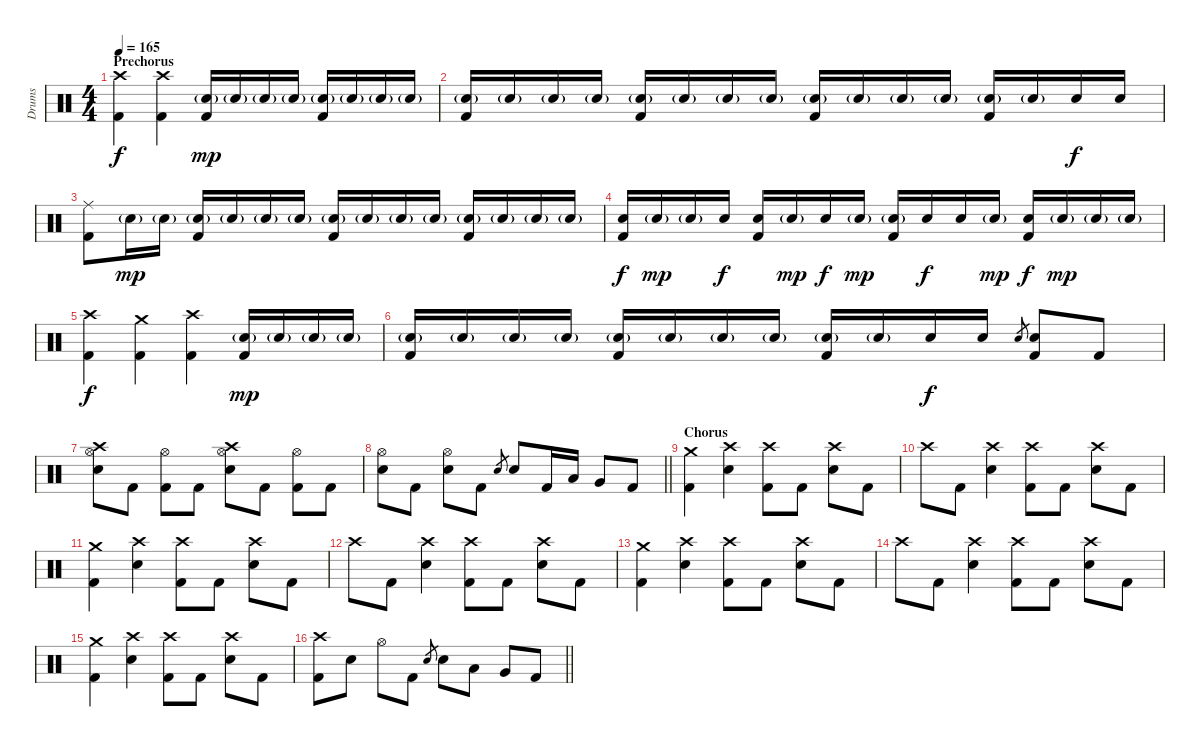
\track ("Drums" "Drums") {instrument percussion}
\staff {score}
\articulation defaults
\ts (4 4)
\section ("" "Prechorus")
\tempo 165
\clef neutral
\ks c
("Crash high (hit)" "Kick (hit) 2").4{dy f} ("Crash high (hit)" "Kick (hit) 2").4 ("Electric Snare (hit)"{g} "Kick (hit) 2").16{dy mp} "Electric Snare (hit)"{g}.16 "Electric Snare (hit)"{g}.16 "Electric Snare (hit)"{g}.16 ("Electric Snare (hit)"{g} "Kick (hit) 2").16 "Electric Snare (hit)"{g}.16 "Electric Snare (hit)"{g}.16 "Electric Snare (hit)"{g}.16 |
("Electric Snare (hit)"{g} "Kick (hit) 2").16 "Electric Snare (hit)"{g}.16 "Electric Snare (hit)"{g}.16 "Electric Snare (hit)"{g}.16 ("Electric Snare (hit)"{g} "Kick (hit) 2").16 "Electric Snare (hit)"{g}.16 "Electric Snare (hit)"{g}.16 "Electric Snare (hit)"{g}.16 ("Electric Snare (hit)"{g} "Kick (hit) 2").16 "Electric Snare (hit)"{g}.16 "Electric Snare (hit)"{g}.16 "Electric Snare (hit)"{g}.16 ("Electric Snare (hit)"{g} "Kick (hit) 2").16 "Electric Snare (hit)"{g}.16 "Electric Snare (hit)".16{dy f} "Electric Snare (hit)".16 |
("Ride (middle)" "Kick (hit) 2").8 "Electric Snare (hit)"{g}.16{dy mp} "Electric Snare (hit)"{g}.16 ("Electric Snare (hit)"{g} "Kick (hit) 2").16 "Electric Snare (hit)"{g}.16 "Electric Snare (hit)"{g}.16 "Electric Snare (hit)"{g}.16 ("Electric Snare (hit)"{g} "Kick (hit) 2").16 "Electric Snare (hit)"{g}.16 "Electric Snare (hit)"{g}.16 "Electric Snare (hit)"{g}.16 ("Electric Snare (hit)"{g} "Kick (hit) 2").16 "Electric Snare (hit)"{g}.16 "Electric Snare (hit)"{g}.16 "Electric Snare (hit)"{g}.16 |
("Electric Snare (hit)" "Kick (hit) 2").16{dy f} "Electric Snare (hit)"{g}.16{dy mp} "Electric Snare (hit)"{g}.16 "Electric Snare (hit)".16{dy f} ("Electric Snare (hit)" "Kick (hit) 2").16 "Electric Snare (hit)"{g}.16{dy mp} "Electric Snare (hit)".16{dy f} "Electric Snare (hit)"{g}.16{dy mp} ("Electric Snare (hit)"{g} "Kick (hit) 2").16 "Electric Snare (hit)".16{dy f} "Electric Snare (hit)".16 "Electric Snare (hit)"{g}.16{dy mp} ("Electric Snare (hit)" "Kick (hit) 2").16{dy f} "Electric Snare (hit)"{g}.16{dy mp} "Electric Snare (hit)"{g}.16 "Electric Snare (hit)"{g}.16 |
("Crash high (hit)" "Kick (hit) 2").4{dy f} ("Crash medium (hit)" "Kick (hit) 2").4 ("Crash high (hit)" "Kick (hit) 2").4 ("Electric Snare (hit)"{g} "Kick (hit) 2").16{dy mp} "Electric Snare (hit)"{g}.16 "Electric Snare (hit)"{g}.16 "Electric Snare (hit)"{g}.16 |
("Electric Snare (hit)"{g} "Kick (hit) 2").16 "Electric Snare (hit)"{g}.16 "Electric Snare (hit)"{g}.16 "Electric Snare (hit)"{g}.16 ("Electric Snare (hit)"{g} "Kick (hit) 2").16 "Electric Snare (hit)"{g}.16 "Electric Snare (hit)"{g}.16 "Electric Snare (hit)"{g}.16 ("Electric Snare (hit)"{g} "Kick (hit) 2").16 "Electric Snare (hit)"{g}.16 "Electric Snare (hit)".16{dy f} "Electric Snare (hit)".16 "Electric Snare (hit)".8{gr} ("Electric Snare (hit)" "Kick (hit) 2").8 "Kick (hit) 2".8 |
("Crash high (hit)" "Hi-Hat (open)" "Electric Snare (hit)").8 "Kick (hit) 2".8 ("Hi-Hat (open)" "Kick (hit) 2").8 "Kick (hit) 2".8 ("Crash high (hit)" "Hi-Hat (open)" "Electric Snare (hit)").8 "Kick (hit) 2".8 ("Hi-Hat (open)" "Kick (hit) 2").8 "Kick (hit) 2".8 |
\barLineRight lightlight
("Hi-Hat (open)" "Electric Snare (hit)").8 "Kick (hit) 2".8 ("Hi-Hat (open)" "Electric Snare (hit)").8 "Kick (hit) 2".8 "Electric Snare (hit)".8{gr} "Electric Snare (hit)".8 "Kick (hit) 2".16 "Low Tom (hit)".16 "Very Low Tom (hit)".8 "Kick (hit) 2".8 |
\section ("" "Chorus")
("Crash medium (hit)" "Kick (hit) 2").4 ("Crash high (hit)" "Electric Snare (hit)").4 ("Crash high (hit)" "Kick (hit) 2").8 "Kick (hit) 2".8 ("Crash high (hit)" "Electric Snare (hit)").8 "Kick (hit) 2".8 |
"Crash high (hit)".8 "Kick (hit) 2".8 ("Crash high (hit)" "Electric Snare (hit)").4 ("Crash high (hit)" "Kick (hit) 2").8 "Kick (hit) 2".8 ("Crash high (hit)" "Electric Snare (hit)").8 "Kick (hit) 2".8 |
("Crash medium (hit)" "Kick (hit) 2").4 ("Crash high (hit)" "Electric Snare (hit)").4 ("Crash high (hit)" "Kick (hit) 2").8 "Kick (hit) 2".8 ("Crash high (hit)" "Electric Snare (hit)").8 "Kick (hit) 2".8 |
"Crash high (hit)".8 "Kick (hit) 2".8 ("Crash high (hit)" "Electric Snare (hit)").4 ("Crash high (hit)" "Kick (hit) 2").8 "Kick (hit) 2".8 ("Crash high (hit)" "Electric Snare (hit)").8 "Kick (hit) 2".8 |
("Crash medium (hit)" "Kick (hit) 2").4 ("Crash high (hit)" "Electric Snare (hit)").4 ("Crash high (hit)" "Kick (hit) 2").8 "Kick (hit) 2".8 ("Crash high (hit)" "Electric Snare (hit)").8 "Kick (hit) 2".8 |
"Crash high (hit)".8 "Kick (hit) 2".8 ("Crash high (hit)" "Electric Snare (hit)").4 ("Crash high (hit)" "Kick (hit) 2").8 "Kick (hit) 2".8 ("Crash high (hit)" "Electric Snare (hit)").8 "Kick (hit) 2".8 |
("Crash medium (hit)" "Kick (hit) 2").4 ("Crash high (hit)" "Electric Snare (hit)").4 ("Crash high (hit)" "Kick (hit) 2").8 "Kick (hit) 2".8 ("Crash high (hit)" "Electric Snare (hit)").8 "Kick (hit) 2".8 |
\barLineRight lightlight
("Crash high (hit)" "Kick (hit) 2").8 "Electric Snare (hit)".8 "Hi-Hat (open)".8 "Kick (hit) 2".8 "Electric Snare (hit)".8{gr} "Electric Snare (hit)".8 "Low Tom (hit)".8 "Very Low Tom (hit)".8 "Kick (hit) 2".8
